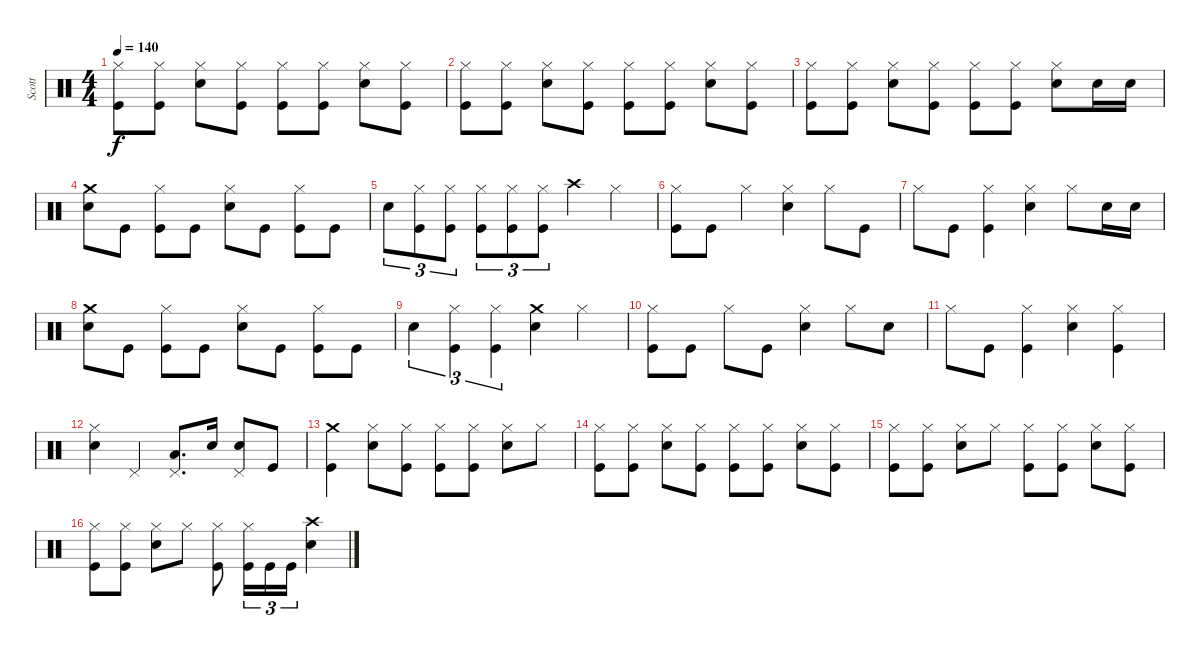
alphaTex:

\track ("Scott" "Scott") {instrument percussion}
\staff {score}
\articulation defaults
\ts (4 4)
\tempo 140
\clef neutral
\ks c
("Kick (hit)" "Hi-Hat (closed)").8{dy f} ("Kick (hit)" "Hi-Hat (closed)").8 ("Snare (hit) 2" "Hi-Hat (closed)").8 ("Kick (hit)" "Hi-Hat (closed)").8 ("Kick (hit)" "Hi-Hat (closed)").8 ("Kick (hit)" "Hi-Hat (closed)").8 ("Snare (hit) 2" "Hi-Hat (closed)").8 ("Kick (hit)" "Hi-Hat (closed)").8 |
("Kick (hit)" "Hi-Hat (closed)").8 ("Kick (hit)" "Hi-Hat (closed)").8 ("Snare (hit) 2" "Hi-Hat (closed)").8 ("Kick (hit)" "Hi-Hat (closed)").8 ("Kick (hit)" "Hi-Hat (closed)").8 ("Kick (hit)" "Hi-Hat (closed)").8 ("Snare (hit) 2" "Hi-Hat (closed)").8 ("Kick (hit)" "Hi-Hat (closed)").8 |
("Kick (hit)" "Hi-Hat (closed)").8 ("Kick (hit)" "Hi-Hat (closed)").8 ("Snare (hit) 2" "Hi-Hat (closed)").8 ("Kick (hit)" "Hi-Hat (closed)").8 ("Kick (hit)" "Hi-Hat (closed)").8 ("Kick (hit)" "Hi-Hat (closed)").8 ("Snare (hit) 2" "Hi-Hat (closed)").8 "Snare (hit) 2".16 "Snare (hit) 2".16 |
("Snare (hit) 2" "Crash medium (hit)").8 "Kick (hit)".8 ("Kick (hit)" "Hi-Hat (closed)").8 "Kick (hit)".8 ("Snare (hit) 2" "Hi-Hat (closed)").8 "Kick (hit)".8 ("Kick (hit)" "Hi-Hat (closed)").8 "Kick (hit)".8 |
"Snare (hit) 2".8{tu (3 2)} ("Kick (hit)" "Hi-Hat (closed)").8{tu (3 2)} ("Kick (hit)" "Hi-Hat (closed)").8{tu (3 2)} ("Kick (hit)" "Hi-Hat (closed)").8{tu (3 2)} ("Kick (hit)" "Hi-Hat (closed)").8{tu (3 2)} ("Kick (hit)" "Hi-Hat (closed)").8{tu (3 2)} "Crash high (hit)".4 "Hi-Hat (closed)".4 |
("Kick (hit)" "Hi-Hat (closed)").8 "Kick (hit)".8 "Hi-Hat (closed)".4 ("Snare (hit) 2" "Hi-Hat (closed)").4 "Hi-Hat (closed)".8 "Kick (hit)".8 |
"Hi-Hat (closed)".8 "Kick (hit)".8 ("Kick (hit)" "Hi-Hat (closed)").4 ("Snare (hit) 2" "Hi-Hat (closed)").4 "Hi-Hat (closed)".8 "Snare (hit) 2".16 "Snare (hit) 2".16 |
("Snare (hit) 2" "Crash medium (hit)").8 "Kick (hit)".8 ("Kick (hit)" "Hi-Hat (closed)").8 "Kick (hit)".8 ("Snare (hit) 2" "Hi-Hat (closed)").8 "Kick (hit)".8 ("Kick (hit)" "Hi-Hat (closed)").8 "Kick (hit)".8 |
"Snare (hit) 2".4{tu (3 2)} ("Kick (hit)" "Hi-Hat (closed)").4{tu (3 2)} ("Kick (hit)" "Hi-Hat (closed)").4{tu (3 2)} ("Snare (hit) 2" "Crash medium (hit)").4 "Hi-Hat (closed)".4 |
("Kick (hit)" "Hi-Hat (closed)").8 "Kick (hit)".8 "Hi-Hat (closed)".8 "Kick (hit)".8 ("Snare (hit) 2" "Hi-Hat (closed)").4 "Hi-Hat (closed)".8 "Snare (hit) 2".8 |
"Hi-Hat (closed)".8 "Kick (hit)".8 ("Kick (hit)" "Hi-Hat (closed)").4 ("Snare (hit) 2" "Hi-Hat (closed)").4 ("Kick (hit)" "Hi-Hat (closed)").4 |
("Snare (hit) 2" "Hi-Hat (closed)").4 "Pedal Hi-Hat (hit)".4 ("Low Tom (hit)" "Pedal Hi-Hat (hit)").8{d} "Snare (hit) 2".16 ("Snare (hit) 2" "Pedal Hi-Hat (hit)").8 "Kick (hit)".8 |
("Kick (hit)" "Crash medium (hit)").4 ("Snare (hit) 2" "Hi-Hat (closed)").8 ("Kick (hit)" "Hi-Hat (closed)").8 ("Kick (hit)" "Hi-Hat (closed)").8 ("Kick (hit)" "Hi-Hat (closed)").8 ("Snare (hit) 2" "Hi-Hat (closed)").8 "Hi-Hat (closed)".8 |
("Kick (hit)" "Hi-Hat (closed)").8 ("Kick (hit)" "Hi-Hat (closed)").8 ("Snare (hit) 2" "Hi-Hat (closed)").8 ("Kick (hit)" "Hi-Hat (closed)").8 ("Kick (hit)" "Hi-Hat (closed)").8 ("Kick (hit)" "Hi-Hat (closed)").8 ("Snare (hit) 2" "Hi-Hat (closed)").8 ("Kick (hit)" "Hi-Hat (closed)").8 |
("Kick (hit)" "Hi-Hat (closed)").8 ("Kick (hit)" "Hi-Hat (closed)").8 ("Snare (hit) 2" "Hi-Hat (closed)").8 "Hi-Hat (closed)".8 ("Kick (hit)" "Hi-Hat (closed)").8 ("Kick (hit)" "Hi-Hat (closed)").8 ("Snare (hit) 2" "Hi-Hat (closed)").8 ("Kick (hit)" "Hi-Hat (closed)").8 |
("Kick (hit)" "Hi-Hat (closed)").8 ("Kick (hit)" "Hi-Hat (closed)").8 ("Snare (hit) 2" "Hi-Hat (closed)").8 "Hi-Hat (closed)".8 ("Kick (hit)" "Hi-Hat (closed)").8 ("Kick (hit)" "Hi-Hat (closed)").16{tu (3 2)} "Kick (hit)".16{tu (3 2)} "Kick (hit)".16{tu (3 2)} ("Snare (hit) 2" "Crash high (hit)").4
